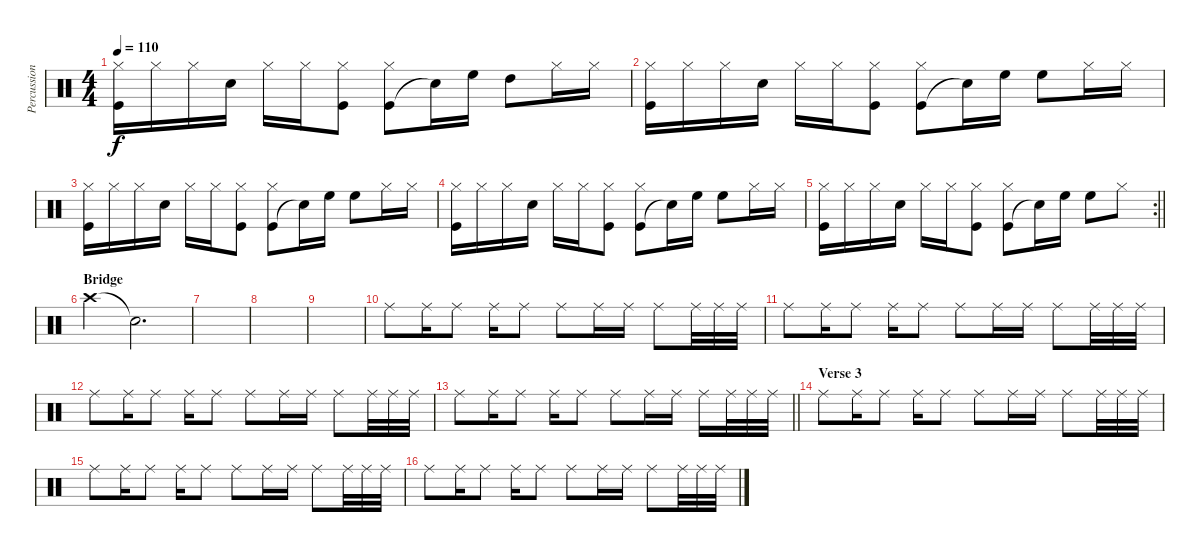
\track ("Percussion" "Percussion") {instrument percussion}
\staff {score}
\articulation defaults
\ts (4 4)
\tempo 110
\clef neutral
\ks c
("Kick (hit)" "Hi-Hat (closed)").16{dy f} "Hi-Hat (closed)".16 "Hi-Hat (closed)".16 "Snare (hit) 2".16 "Hi-Hat (closed)".16 "Hi-Hat (closed)".16 ("Kick (hit)" "Hi-Hat (closed)").8 ("Kick (hit)" "Hi-Hat (closed)").8 "Snare (hit)"{t}.16 "High Floor Tom (hit)".16 "High Tom (hit)".8 "Hi-Hat (closed)".16 "Hi-Hat (closed)".16 |
("Kick (hit)" "Hi-Hat (closed)").16 "Hi-Hat (closed)".16 "Hi-Hat (closed)".16 "Snare (hit) 2".16 "Hi-Hat (closed)".16 "Hi-Hat (closed)".16 ("Kick (hit)" "Hi-Hat (closed)").8 ("Kick (hit)" "Hi-Hat (closed)").8 "Snare (hit)"{t}.16 "High Floor Tom (hit)".16 "High Floor Tom (hit)".8 "Hi-Hat (closed)".16 "Hi-Hat (closed)".16 |
("Kick (hit)" "Hi-Hat (closed)").16 "Hi-Hat (closed)".16 "Hi-Hat (closed)".16 "Snare (hit) 2".16 "Hi-Hat (closed)".16 "Hi-Hat (closed)".16 ("Kick (hit)" "Hi-Hat (closed)").8 ("Kick (hit)" "Hi-Hat (closed)").8 "Snare (hit)"{t}.16 "High Floor Tom (hit)".16 "High Floor Tom (hit)".8 "Hi-Hat (closed)".16 "Hi-Hat (closed)".16 |
("Kick (hit)" "Hi-Hat (closed)").16 "Hi-Hat (closed)".16 "Hi-Hat (closed)".16 "Snare (hit) 2".16 "Hi-Hat (closed)".16 "Hi-Hat (closed)".16 ("Kick (hit)" "Hi-Hat (closed)").8 ("Kick (hit)" "Hi-Hat (closed)").8 "Snare (hit)"{t}.16 "High Floor Tom (hit)".16 "High Floor Tom (hit)".8 "Hi-Hat (closed)".16 "Hi-Hat (closed)".16 |
\rc 2
\barLineRight lightlight
("Kick (hit)" "Hi-Hat (closed)").16 "Hi-Hat (closed)".16 "Hi-Hat (closed)".16 "Snare (hit) 2".16 "Hi-Hat (closed)".16 "Hi-Hat (closed)".16 ("Kick (hit)" "Hi-Hat (closed)").8 ("Kick (hit)" "Hi-Hat (closed)").8 "Snare (hit)"{t}.16 "High Floor Tom (hit)".16 "High Floor Tom (hit)".8 "Hi-Hat (closed)".8 |
\section ("" "Bridge")
"Crash high (hit)".4 "Snare (hit)"{t}.2{d} |
|
|
|
"Ride (middle)".8 "Ride (middle)".16 "Ride (middle)".8 "Ride (middle)".16 "Ride (middle)".8 "Ride (middle)".8 "Ride (middle)".16 "Ride (middle)".16 "Ride (middle)".8 "Ride (middle)".32 "Ride (middle)".32 "Ride (middle)".32 |
"Ride (middle)".8 "Ride (middle)".16 "Ride (middle)".8 "Ride (middle)".16 "Ride (middle)".8 "Ride (middle)".8 "Ride (middle)".16 "Ride (middle)".16 "Ride (middle)".8 "Ride (middle)".32 "Ride (middle)".32 "Ride (middle)".32 |
"Ride (middle)".8 "Ride (middle)".16 "Ride (middle)".8 "Ride (middle)".16 "Ride (middle)".8 "Ride (middle)".8 "Ride (middle)".16 "Ride (middle)".16 "Ride (middle)".8 "Ride (middle)".32 "Ride (middle)".32 "Ride (middle)".32 |
\barLineRight lightlight "Ride (middle)".8 "Ride (middle)".16 "Ride (middle)".8 "Ride (middle)".16 "Ride (middle)".8 "Ride (middle)".8 "Ride (middle)".16 "Ride (middle)".16 "Ride (middle)".16 "Ride (middle)".32 "Ride (middle)".32 "Ride (middle)".32
|
\section ("" "Verse 3")
"Ride (middle)".8 "Ride (middle)".16 "Ride (middle)".8 "Ride (middle)".16 "Ride (middle)".8 "Ride (middle)".8 "Ride (middle)".16 "Ride (middle)".16 "Ride (middle)".8 "Ride (middle)".32 "Ride (middle)".32 "Ride (middle)".32 |
"Ride (middle)".8 "Ride (middle)".16 "Ride (middle)".8 "Ride (middle)".16 "Ride (middle)".8 "Ride (middle)".8 "Ride (middle)".16 "Ride (middle)".16 "Ride (middle)".8 "Ride (middle)".32 "Ride (middle)".32 "Ride (middle)".32 |
"Ride (middle)".8 "Ride (middle)".16 "Ride (middle)".8 "Ride (middle)".16 "Ride (middle)".8 "Ride (middle)".8 "Ride (middle)".16 "Ride (middle)".16 "Ride (middle)".8 "Ride (middle)".32 "Ride (middle)".32 "Ride (middle)".32
